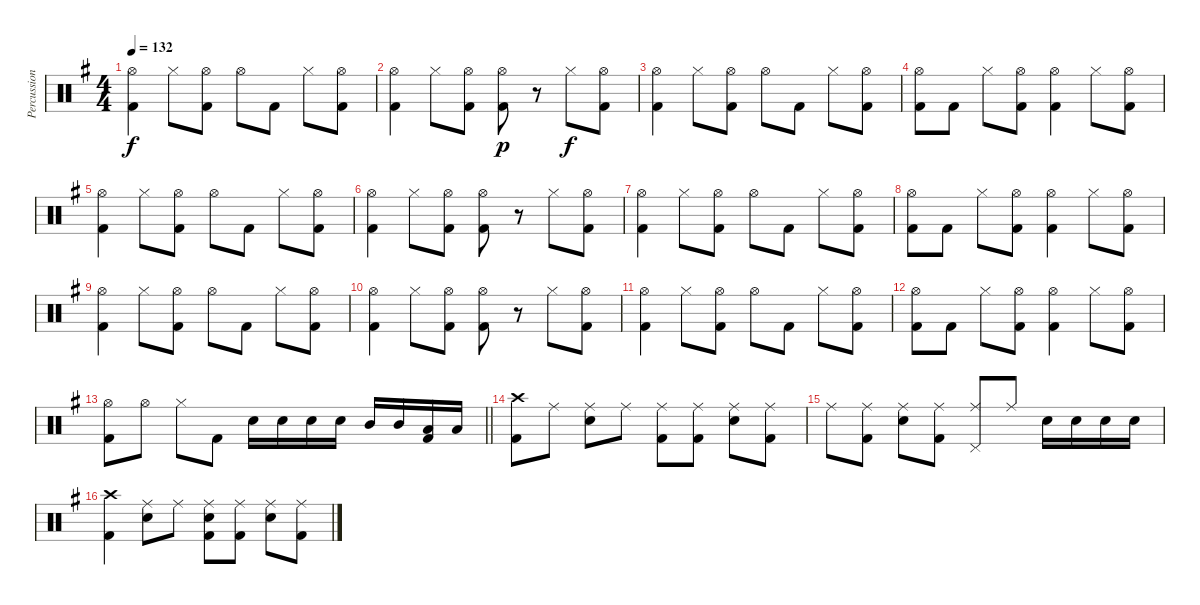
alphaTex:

\track ("Percussion" "Percussion") {instrument percussion}
\staff {score}
\articulation defaults
\ts (4 4)
\tempo 132
\clef neutral
\ks eminor
("Hi-Hat (open)" "Kick (hit) 2").4{dy f} "Hi-Hat (closed)".8 ("Hi-Hat (open)" "Kick (hit) 2").8 "Hi-Hat (open)".8 "Kick (hit) 2".8 "Hi-Hat (closed)".8 ("Hi-Hat (open)" "Kick (hit) 2").8 |
("Hi-Hat (open)" "Kick (hit) 2").4 "Hi-Hat (closed)".8 ("Hi-Hat (open)" "Kick (hit) 2").8 ("Hi-Hat (open)" "Kick (hit) 2").8{dy p} r.8 "Hi-Hat (closed)".8{dy f} ("Hi-Hat (open)" "Kick (hit) 2").8 |
("Hi-Hat (open)" "Kick (hit) 2").4 "Hi-Hat (closed)".8 ("Hi-Hat (open)" "Kick (hit) 2").8 "Hi-Hat (open)".8 "Kick (hit) 2".8 "Hi-Hat (closed)".8 ("Hi-Hat (open)" "Kick (hit) 2").8 |
("Hi-Hat (open)" "Kick (hit) 2").8 "Kick (hit) 2".8 "Hi-Hat (closed)".8 ("Hi-Hat (open)" "Kick (hit) 2").8 ("Hi-Hat (open)" "Kick (hit) 2").4 "Hi-Hat (closed)".8 ("Hi-Hat (open)" "Kick (hit) 2").8 |
("Hi-Hat (open)" "Kick (hit) 2").4 "Hi-Hat (closed)".8 ("Hi-Hat (open)" "Kick (hit) 2").8 "Hi-Hat (open)".8 "Kick (hit) 2".8 "Hi-Hat (closed)".8 ("Hi-Hat (open)" "Kick (hit) 2").8 |
("Hi-Hat (open)" "Kick (hit) 2").4 "Hi-Hat (closed)".8 ("Hi-Hat (open)" "Kick (hit) 2").8 ("Hi-Hat (open)" "Kick (hit) 2").8 r.8 "Hi-Hat (closed)".8 ("Hi-Hat (open)" "Kick (hit) 2").8 |
("Hi-Hat (open)" "Kick (hit) 2").4 "Hi-Hat (closed)".8 ("Hi-Hat (open)" "Kick (hit) 2").8 "Hi-Hat (open)".8 "Kick (hit) 2".8 "Hi-Hat (closed)".8 ("Hi-Hat (open)" "Kick (hit) 2").8 |
("Hi-Hat (open)" "Kick (hit) 2").8 "Kick (hit) 2".8 "Hi-Hat (closed)".8 ("Hi-Hat (open)" "Kick (hit) 2").8 ("Hi-Hat (open)" "Kick (hit) 2").4 "Hi-Hat (closed)".8 ("Hi-Hat (open)" "Kick (hit) 2").8 |
("Hi-Hat (open)" "Kick (hit) 2").4 "Hi-Hat (closed)".8 ("Hi-Hat (open)" "Kick (hit) 2").8 "Hi-Hat (open)".8 "Kick (hit) 2".8 "Hi-Hat (closed)".8 ("Hi-Hat (open)" "Kick (hit) 2").8 |
("Hi-Hat (open)" "Kick (hit) 2").4 "Hi-Hat (closed)".8 ("Hi-Hat (open)" "Kick (hit) 2").8 ("Hi-Hat (open)" "Kick (hit) 2").8 r.8 "Hi-Hat (closed)".8 ("Hi-Hat (open)" "Kick (hit) 2").8 |
("Hi-Hat (open)" "Kick (hit) 2").4 "Hi-Hat (closed)".8 ("Hi-Hat (open)" "Kick (hit) 2").8 "Hi-Hat (open)".8 "Kick (hit) 2".8 "Hi-Hat (closed)".8 ("Hi-Hat (open)" "Kick (hit) 2").8 |
("Hi-Hat (open)" "Kick (hit) 2").8 "Kick (hit) 2".8 "Hi-Hat (closed)".8 ("Hi-Hat (open)" "Kick (hit) 2").8 ("Hi-Hat (open)" "Kick (hit) 2").4 "Hi-Hat (closed)".8 ("Hi-Hat (open)" "Kick (hit) 2").8 |
\barLineRight lightlight
("Hi-Hat (open)" "Kick (hit) 2").8 "Hi-Hat (open)".8 "Hi-Hat (closed)".8 "Kick (hit) 2".8 "Snare (hit) 2".16 "Snare (hit) 2".16 "Snare (hit) 2".16 "Snare (hit) 2".16 "Mid Tom (hit)".16 "Mid Tom (hit)".16 ("Low Floor Tom (hit)" "Kick (hit) 2").16 "Low Floor Tom (hit)".16 |
("Crash high (hit)" "Kick (hit) 2").8 "Ride (middle)".8 ("Ride (middle)" "Snare (hit) 2").8 "Ride (middle)".8 ("Ride (middle)" "Kick (hit) 2").8 ("Ride (middle)" "Kick (hit) 2").8 ("Ride (middle)" "Snare (hit) 2").8 ("Ride (middle)" "Kick (hit) 2").8 |
"Ride (middle)".8 ("Ride (middle)" "Kick (hit) 2").8 ("Ride (middle)" "Snare (hit) 2").8 ("Ride (middle)" "Kick (hit) 2").8 ("Ride (middle)" "Pedal Hi-Hat (hit)").8 "Ride (middle)".8 "Snare (hit) 2".16 "Snare (hit) 2".16 "Snare (hit) 2".16 "Snare (hit) 2".16 |
("Crash high (hit)" "Kick (hit) 2").4 ("Ride (middle)" "Snare (hit) 2").8 "Ride (middle)".8 ("Ride (middle)" "Snare (hit) 2" "Kick (hit) 2").8 ("Ride (middle)" "Kick (hit) 2").8 ("Ride (middle)" "Snare (hit) 2").8 ("Ride (middle)" "Kick (hit) 2").8
